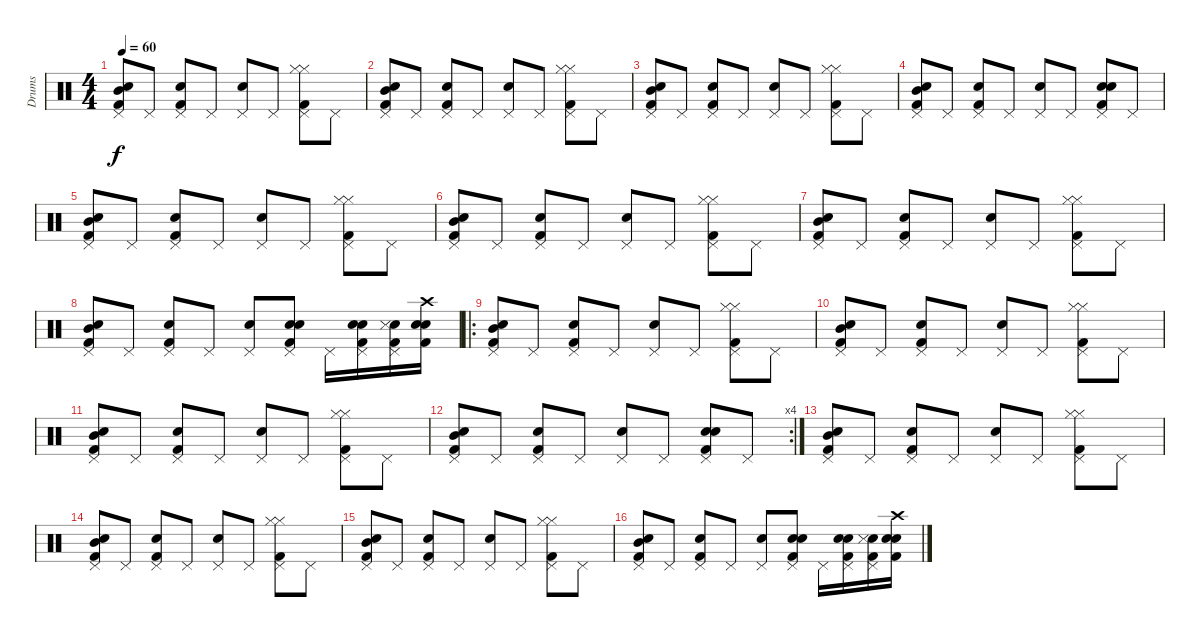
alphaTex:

\track ("Drums" "Drums") {instrument percussion}
\staff {score}
\articulation defaults
\ts (4 4)
\tempo 60
\clef neutral
\ks c
("Kick (hit) 2" "Snare (hit) 2" "Pedal Hi-Hat (hit)" "Mid Tom (hit)").8{dy f} "Pedal Hi-Hat (hit)".8 ("Pedal Hi-Hat (hit)" "Electric Snare (hit)" "Kick (hit) 2").8 "Pedal Hi-Hat (hit)".8 ("Pedal Hi-Hat (hit)" "Snare (hit) 2").8 "Pedal Hi-Hat (hit)".8 ("Pedal Hi-Hat (hit)" "Kick (hit) 2" "Hi-Hat (closed)" "Hi-Hat (closed)").8 "Pedal Hi-Hat (hit)".8 |
("Kick (hit) 2" "Snare (hit) 2" "Pedal Hi-Hat (hit)" "Mid Tom (hit)").8 "Pedal Hi-Hat (hit)".8 ("Pedal Hi-Hat (hit)" "Electric Snare (hit)" "Kick (hit) 2").8 "Pedal Hi-Hat (hit)".8 ("Pedal Hi-Hat (hit)" "Snare (hit) 2").8 "Pedal Hi-Hat (hit)".8 ("Pedal Hi-Hat (hit)" "Kick (hit) 2" "Hi-Hat (closed)" "Hi-Hat (closed)").8 "Pedal Hi-Hat (hit)".8 |
("Kick (hit) 2" "Snare (hit) 2" "Pedal Hi-Hat (hit)" "Mid Tom (hit)").8 "Pedal Hi-Hat (hit)".8 ("Pedal Hi-Hat (hit)" "Electric Snare (hit)" "Kick (hit) 2").8 "Pedal Hi-Hat (hit)".8 ("Pedal Hi-Hat (hit)" "Snare (hit) 2").8 "Pedal Hi-Hat (hit)".8 ("Pedal Hi-Hat (hit)" "Kick (hit) 2" "Hi-Hat (closed)" "Hi-Hat (closed)").8 "Pedal Hi-Hat (hit)".8 |
("Kick (hit) 2" "Snare (hit) 2" "Pedal Hi-Hat (hit)" "Mid Tom (hit)").8 "Pedal Hi-Hat (hit)".8 ("Pedal Hi-Hat (hit)" "Electric Snare (hit)" "Kick (hit) 2").8 "Pedal Hi-Hat (hit)".8 ("Pedal Hi-Hat (hit)" "Snare (hit) 2").8 "Pedal Hi-Hat (hit)".8 ("Pedal Hi-Hat (hit)" "Electric Snare (hit)" "Kick (hit) 2" "Snare (hit) 2").8 "Pedal Hi-Hat (hit)".8 |
("Kick (hit) 2" "Snare (hit) 2" "Pedal Hi-Hat (hit)" "Mid Tom (hit)").8 "Pedal Hi-Hat (hit)".8 ("Pedal Hi-Hat (hit)" "Electric Snare (hit)" "Kick (hit) 2").8 "Pedal Hi-Hat (hit)".8 ("Pedal Hi-Hat (hit)" "Snare (hit) 2").8 "Pedal Hi-Hat (hit)".8 ("Pedal Hi-Hat (hit)" "Kick (hit) 2" "Hi-Hat (closed)" "Hi-Hat (closed)").8 "Pedal Hi-Hat (hit)".8 |
("Kick (hit) 2" "Snare (hit) 2" "Pedal Hi-Hat (hit)" "Mid Tom (hit)").8 "Pedal Hi-Hat (hit)".8 ("Pedal Hi-Hat (hit)" "Electric Snare (hit)" "Kick (hit) 2").8 "Pedal Hi-Hat (hit)".8 ("Pedal Hi-Hat (hit)" "Snare (hit) 2").8 "Pedal Hi-Hat (hit)".8 ("Pedal Hi-Hat (hit)" "Kick (hit) 2" "Hi-Hat (closed)" "Hi-Hat (closed)").8 "Pedal Hi-Hat (hit)".8 |
("Kick (hit) 2" "Snare (hit) 2" "Pedal Hi-Hat (hit)" "Mid Tom (hit)").8 "Pedal Hi-Hat (hit)".8 ("Pedal Hi-Hat (hit)" "Electric Snare (hit)" "Kick (hit) 2").8 "Pedal Hi-Hat (hit)".8 ("Pedal Hi-Hat (hit)" "Snare (hit) 2").8 "Pedal Hi-Hat (hit)".8 ("Pedal Hi-Hat (hit)" "Kick (hit) 2" "Hi-Hat (closed)" "Hi-Hat (closed)").8 "Pedal Hi-Hat (hit)".8 |
("Kick (hit) 2" "Snare (hit) 2" "Pedal Hi-Hat (hit)" "Mid Tom (hit)").8 "Pedal Hi-Hat (hit)".8 ("Pedal Hi-Hat (hit)" "Electric Snare (hit)" "Kick (hit) 2").8 "Pedal Hi-Hat (hit)".8 ("Pedal Hi-Hat (hit)" "Snare (hit) 2").8 ("Pedal Hi-Hat (hit)" "Electric Snare (hit)" "Kick (hit) 2" "Snare (hit) 2").8 "Pedal Hi-Hat (hit)".16 ("Pedal Hi-Hat (hit)" "Electric Snare (hit)" "Kick (hit) 2" "Snare (hit) 2").16 ("Pedal Hi-Hat (hit)" "Electric Snare (hit)" "Kick (hit) 2" "Snare (side stick) 3").16 ("Crash high (hit)" "Electric Snare (hit)" "Kick (hit) 2" "Snare (hit) 2").16 |
\ro
("Kick (hit) 2" "Snare (hit) 2" "Pedal Hi-Hat (hit)" "Mid Tom (hit)").8 "Pedal Hi-Hat (hit)".8 ("Pedal Hi-Hat (hit)" "Electric Snare (hit)" "Kick (hit) 2").8 "Pedal Hi-Hat (hit)".8 ("Pedal Hi-Hat (hit)" "Snare (hit) 2").8 "Pedal Hi-Hat (hit)".8 ("Pedal Hi-Hat (hit)" "Kick (hit) 2" "Hi-Hat (closed)" "Hi-Hat (closed)").8 "Pedal Hi-Hat (hit)".8 |
("Kick (hit) 2" "Snare (hit) 2" "Pedal Hi-Hat (hit)" "Mid Tom (hit)").8 "Pedal Hi-Hat (hit)".8 ("Pedal Hi-Hat (hit)" "Electric Snare (hit)" "Kick (hit) 2").8 "Pedal Hi-Hat (hit)".8 ("Pedal Hi-Hat (hit)" "Snare (hit) 2").8 "Pedal Hi-Hat (hit)".8 ("Pedal Hi-Hat (hit)" "Kick (hit) 2" "Hi-Hat (closed)" "Hi-Hat (closed)").8 "Pedal Hi-Hat (hit)".8 |
("Kick (hit) 2" "Snare (hit) 2" "Pedal Hi-Hat (hit)" "Mid Tom (hit)").8 "Pedal Hi-Hat (hit)".8 ("Pedal Hi-Hat (hit)" "Electric Snare (hit)" "Kick (hit) 2").8 "Pedal Hi-Hat (hit)".8 ("Pedal Hi-Hat (hit)" "Snare (hit) 2").8 "Pedal Hi-Hat (hit)".8 ("Pedal Hi-Hat (hit)" "Kick (hit) 2" "Hi-Hat (closed)" "Hi-Hat (closed)").8 "Pedal Hi-Hat (hit)".8 |
\rc 4
("Kick (hit) 2" "Snare (hit) 2" "Pedal Hi-Hat (hit)" "Mid Tom (hit)").8 "Pedal Hi-Hat (hit)".8 ("Pedal Hi-Hat (hit)" "Electric Snare (hit)" "Kick (hit) 2").8 "Pedal Hi-Hat (hit)".8 ("Pedal Hi-Hat (hit)" "Snare (hit) 2").8 "Pedal Hi-Hat (hit)".8 ("Pedal Hi-Hat (hit)" "Electric Snare (hit)" "Kick (hit) 2" "Snare (hit) 2").8 "Pedal Hi-Hat (hit)".8 |
("Kick (hit) 2" "Snare (hit) 2" "Pedal Hi-Hat (hit)" "Mid Tom (hit)").8 "Pedal Hi-Hat (hit)".8 ("Pedal Hi-Hat (hit)" "Electric Snare (hit)" "Kick (hit) 2").8 "Pedal Hi-Hat (hit)".8 ("Pedal Hi-Hat (hit)" "Snare (hit) 2").8 "Pedal Hi-Hat (hit)".8 ("Pedal Hi-Hat (hit)" "Kick (hit) 2" "Hi-Hat (closed)" "Hi-Hat (closed)").8 "Pedal Hi-Hat (hit)".8 |
("Kick (hit) 2" "Snare (hit) 2" "Pedal Hi-Hat (hit)" "Mid Tom (hit)").8 "Pedal Hi-Hat (hit)".8 ("Pedal Hi-Hat (hit)" "Electric Snare (hit)" "Kick (hit) 2").8 "Pedal Hi-Hat (hit)".8 ("Pedal Hi-Hat (hit)" "Snare (hit) 2").8 "Pedal Hi-Hat (hit)".8 ("Pedal Hi-Hat (hit)" "Kick (hit) 2" "Hi-Hat (closed)" "Hi-Hat (closed)").8 "Pedal Hi-Hat (hit)".8 |
("Kick (hit) 2" "Snare (hit) 2" "Pedal Hi-Hat (hit)" "Mid Tom (hit)").8 "Pedal Hi-Hat (hit)".8 ("Pedal Hi-Hat (hit)" "Electric Snare (hit)" "Kick (hit) 2").8 "Pedal Hi-Hat (hit)".8 ("Pedal Hi-Hat (hit)" "Snare (hit) 2").8 "Pedal Hi-Hat (hit)".8 ("Pedal Hi-Hat (hit)" "Kick (hit) 2" "Hi-Hat (closed)" "Hi-Hat (closed)").8 "Pedal Hi-Hat (hit)".8 |
("Kick (hit) 2" "Snare (hit) 2" "Pedal Hi-Hat (hit)" "Mid Tom (hit)").8 "Pedal Hi-Hat (hit)".8 ("Pedal Hi-Hat (hit)" "Electric Snare (hit)" "Kick (hit) 2").8 "Pedal Hi-Hat (hit)".8 ("Pedal Hi-Hat (hit)" "Snare (hit) 2").8 ("Pedal Hi-Hat (hit)" "Electric Snare (hit)" "Kick (hit) 2" "Snare (hit) 2").8 "Pedal Hi-Hat (hit)".16 ("Pedal Hi-Hat (hit)" "Electric Snare (hit)" "Kick (hit) 2" "Snare (hit) 2").16 ("Pedal Hi-Hat (hit)" "Electric Snare (hit)" "Kick (hit) 2" "Snare (side stick) 3").16 ("Crash high (hit)" "Electric Snare (hit)" "Kick (hit) 2" "Snare (hit) 2").16
